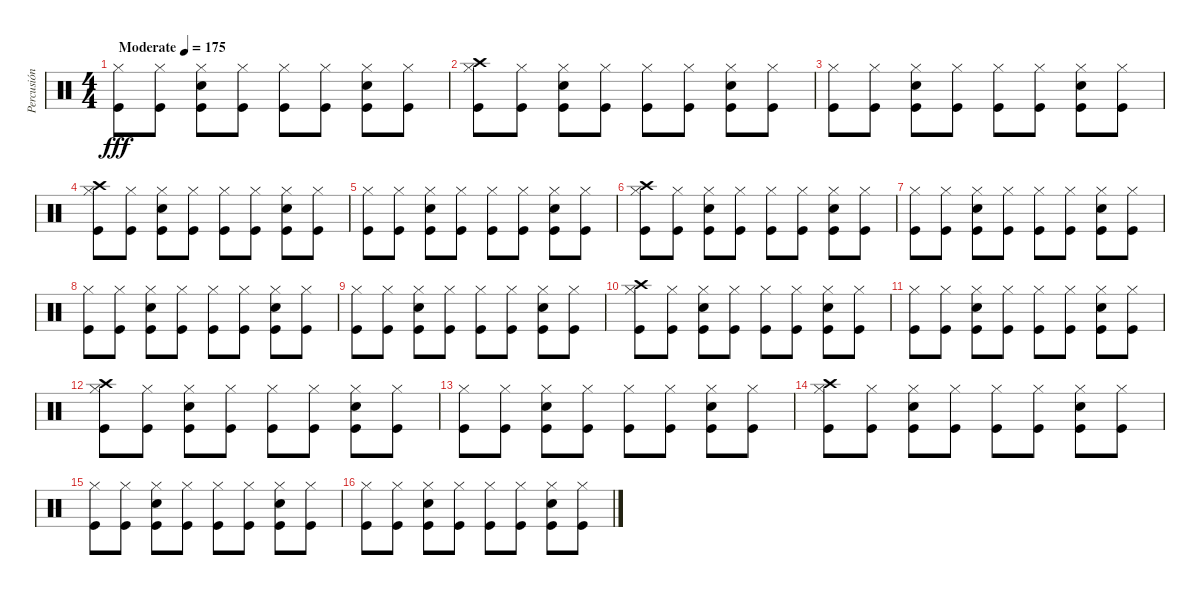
\track ("Percusión" "Percusión") {instrument percussion}
\staff {score}
\articulation defaults
\ts (4 4)
\tempo (175 "Moderate")
\clef neutral
\ks c
("Kick (hit)" "Hi-Hat (closed)").8{dy fff} ("Kick (hit)" "Hi-Hat (closed)").8 ("Snare (hit) 2" "Kick (hit)" "Hi-Hat (closed)").8 ("Kick (hit)" "Hi-Hat (closed)").8 ("Kick (hit)" "Hi-Hat (closed)").8 ("Kick (hit)" "Hi-Hat (closed)").8 ("Snare (hit) 2" "Kick (hit)" "Hi-Hat (closed)").8 ("Kick (hit)" "Hi-Hat (closed)").8 |
("Kick (hit)" "Crash high (hit)" "Hi-Hat (closed)").8 ("Kick (hit)" "Hi-Hat (closed)").8 ("Kick (hit)" "Snare (hit) 2" "Hi-Hat (closed)").8 ("Hi-Hat (closed)" "Kick (hit)").8 ("Kick (hit)" "Hi-Hat (closed)").8 ("Kick (hit)" "Hi-Hat (closed)").8 ("Snare (hit) 2" "Kick (hit)" "Hi-Hat (closed)").8 ("Kick (hit)" "Hi-Hat (closed)").8 |
("Kick (hit)" "Hi-Hat (closed)").8 ("Kick (hit)" "Hi-Hat (closed)").8 ("Snare (hit) 2" "Kick (hit)" "Hi-Hat (closed)").8 ("Kick (hit)" "Hi-Hat (closed)").8 ("Kick (hit)" "Hi-Hat (closed)").8 ("Kick (hit)" "Hi-Hat (closed)").8 ("Snare (hit) 2" "Kick (hit)" "Hi-Hat (closed)").8 ("Kick (hit)" "Hi-Hat (closed)").8 |
("Kick (hit)" "Crash high (hit)" "Hi-Hat (closed)").8 ("Kick (hit)" "Hi-Hat (closed)").8 ("Kick (hit)" "Snare (hit) 2" "Hi-Hat (closed)").8 ("Hi-Hat (closed)" "Kick (hit)").8 ("Kick (hit)" "Hi-Hat (closed)").8 ("Kick (hit)" "Hi-Hat (closed)").8 ("Snare (hit) 2" "Kick (hit)" "Hi-Hat (closed)").8 ("Kick (hit)" "Hi-Hat (closed)").8 |
("Kick (hit)" "Hi-Hat (closed)").8 ("Kick (hit)" "Hi-Hat (closed)").8 ("Snare (hit) 2" "Kick (hit)" "Hi-Hat (closed)").8 ("Kick (hit)" "Hi-Hat (closed)").8 ("Kick (hit)" "Hi-Hat (closed)").8 ("Kick (hit)" "Hi-Hat (closed)").8 ("Snare (hit) 2" "Kick (hit)" "Hi-Hat (closed)").8 ("Kick (hit)" "Hi-Hat (closed)").8 |
("Kick (hit)" "Crash high (hit)" "Hi-Hat (closed)").8 ("Kick (hit)" "Hi-Hat (closed)").8 ("Kick (hit)" "Snare (hit) 2" "Hi-Hat (closed)").8 ("Hi-Hat (closed)" "Kick (hit)").8 ("Kick (hit)" "Hi-Hat (closed)").8 ("Kick (hit)" "Hi-Hat (closed)").8 ("Snare (hit) 2" "Kick (hit)" "Hi-Hat (closed)").8 ("Kick (hit)" "Hi-Hat (closed)").8 |
("Kick (hit)" "Hi-Hat (closed)").8 ("Kick (hit)" "Hi-Hat (closed)").8 ("Snare (hit) 2" "Kick (hit)" "Hi-Hat (closed)").8 ("Kick (hit)" "Hi-Hat (closed)").8 ("Kick (hit)" "Hi-Hat (closed)").8 ("Kick (hit)" "Hi-Hat (closed)").8 ("Snare (hit) 2" "Kick (hit)" "Hi-Hat (closed)").8 ("Kick (hit)" "Hi-Hat (closed)").8 |
("Kick (hit)" "Hi-Hat (closed)").8 ("Kick (hit)" "Hi-Hat (closed)").8 ("Snare (hit) 2" "Kick (hit)" "Hi-Hat (closed)").8 ("Kick (hit)" "Hi-Hat (closed)").8 ("Kick (hit)" "Hi-Hat (closed)").8 ("Kick (hit)" "Hi-Hat (closed)").8 ("Snare (hit) 2" "Kick (hit)" "Hi-Hat (closed)").8 ("Kick (hit)" "Hi-Hat (closed)").8 |
("Kick (hit)" "Hi-Hat (closed)").8 ("Kick (hit)" "Hi-Hat (closed)").8 ("Snare (hit) 2" "Kick (hit)" "Hi-Hat (closed)").8 ("Kick (hit)" "Hi-Hat (closed)").8 ("Kick (hit)" "Hi-Hat (closed)").8 ("Kick (hit)" "Hi-Hat (closed)").8 ("Snare (hit) 2" "Kick (hit)" "Hi-Hat (closed)").8 ("Kick (hit)" "Hi-Hat (closed)").8 |
("Kick (hit)" "Crash high (hit)" "Hi-Hat (closed)").8 ("Kick (hit)" "Hi-Hat (closed)").8 ("Kick (hit)" "Snare (hit) 2" "Hi-Hat (closed)").8 ("Hi-Hat (closed)" "Kick (hit)").8 ("Kick (hit)" "Hi-Hat (closed)").8 ("Kick (hit)" "Hi-Hat (closed)").8 ("Snare (hit) 2" "Kick (hit)" "Hi-Hat (closed)").8 ("Kick (hit)" "Hi-Hat (closed)").8 |
("Kick (hit)" "Hi-Hat (closed)").8 ("Kick (hit)" "Hi-Hat (closed)").8 ("Snare (hit) 2" "Kick (hit)" "Hi-Hat (closed)").8 ("Kick (hit)" "Hi-Hat (closed)").8 ("Kick (hit)" "Hi-Hat (closed)").8 ("Kick (hit)" "Hi-Hat (closed)").8 ("Snare (hit) 2" "Kick (hit)" "Hi-Hat (closed)").8 ("Kick (hit)" "Hi-Hat (closed)").8 |
("Kick (hit)" "Crash high (hit)" "Hi-Hat (closed)").8 ("Kick (hit)" "Hi-Hat (closed)").8 ("Kick (hit)" "Snare (hit) 2" "Hi-Hat (closed)").8 ("Hi-Hat (closed)" "Kick (hit)").8 ("Kick (hit)" "Hi-Hat (closed)").8 ("Kick (hit)" "Hi-Hat (closed)").8 ("Snare (hit) 2" "Kick (hit)" "Hi-Hat (closed)").8 ("Kick (hit)" "Hi-Hat (closed)").8 |
("Kick (hit)" "Hi-Hat (closed)").8 ("Kick (hit)" "Hi-Hat (closed)").8 ("Snare (hit) 2" "Kick (hit)" "Hi-Hat (closed)").8 ("Kick (hit)" "Hi-Hat (closed)").8 ("Kick (hit)" "Hi-Hat (closed)").8 ("Kick (hit)" "Hi-Hat (closed)").8 ("Snare (hit) 2" "Kick (hit)" "Hi-Hat (closed)").8 ("Kick (hit)" "Hi-Hat (closed)").8 |
("Kick (hit)" "Crash high (hit)" "Hi-Hat (closed)").8 ("Kick (hit)" "Hi-Hat (closed)").8 ("Kick (hit)" "Snare (hit) 2" "Hi-Hat (closed)").8 ("Hi-Hat (closed)" "Kick (hit)").8 ("Kick (hit)" "Hi-Hat (closed)").8 ("Kick (hit)" "Hi-Hat (closed)").8 ("Snare (hit) 2" "Kick (hit)" "Hi-Hat (closed)").8 ("Kick (hit)" "Hi-Hat (closed)").8 |
("Kick (hit)" "Hi-Hat (closed)").8 ("Kick (hit)" "Hi-Hat (closed)").8 ("Snare (hit) 2" "Kick (hit)" "Hi-Hat (closed)").8 ("Kick (hit)" "Hi-Hat (closed)").8 ("Kick (hit)" "Hi-Hat (closed)").8 ("Kick (hit)" "Hi-Hat (closed)").8 ("Snare (hit) 2" "Kick (hit)" "Hi-Hat (closed)").8 ("Kick (hit)" "Hi-Hat (closed)").8 |
("Kick (hit)" "Hi-Hat (closed)").8 ("Kick (hit)" "Hi-Hat (closed)").8 ("Snare (hit) 2" "Kick (hit)" "Hi-Hat (closed)").8 ("Kick (hit)" "Hi-Hat (closed)").8 ("Kick (hit)" "Hi-Hat (closed)").8 ("Kick (hit)" "Hi-Hat (closed)").8 ("Snare (hit) 2" "Kick (hit)" "Hi-Hat (closed)").8 ("Kick (hit)" "Hi-Hat (closed)").8
